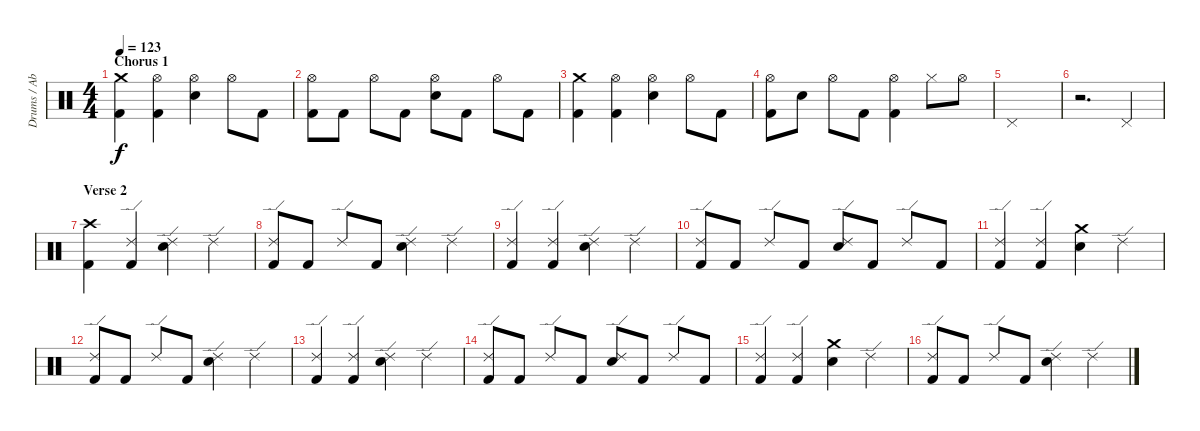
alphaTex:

\track ("Drums / Abe Cunningham" "Drums / Ab") {instrument percussion}
\staff {score}
\articulation defaults
\ts (4 4)
\section ("" "Chorus 1")
\tempo 123
\clef neutral
\ks c
("Crash medium (hit)" "Kick (hit) 2").4{dy f} ("Hi-Hat (open)" "Kick (hit) 2").4 ("Hi-Hat (open)" "Electric Snare (hit)").4 "Hi-Hat (open)".8 "Kick (hit) 2".8 |
("Hi-Hat (open)" "Kick (hit) 2").8 "Kick (hit) 2".8 "Hi-Hat (open)".8 "Kick (hit) 2".8 ("Hi-Hat (open)" "Electric Snare (hit)").8 "Kick (hit) 2".8 "Hi-Hat (open)".8 "Kick (hit) 2".8 |
("Crash medium (hit)" "Kick (hit) 2").4 ("Hi-Hat (open)" "Kick (hit) 2").4 ("Hi-Hat (open)" "Electric Snare (hit)").4 "Hi-Hat (open)".8 "Kick (hit) 2".8 |
("Hi-Hat (open)" "Kick (hit) 2").8 "Electric Snare (hit)".8 "Hi-Hat (open)".8 "Kick (hit) 2".8 ("Hi-Hat (open)" "Kick (hit) 2").4 "Hi-Hat (closed)".8 "Hi-Hat (open)".8 |
"Pedal Hi-Hat (hit)".1 |
r.2{d} "Pedal Hi-Hat (hit)".4 |
\section ("" "Verse 2")
("Crash high (hit)" "Kick (hit) 2").4 ("Ride (edge) 2" "Kick (hit) 2").4 ("Ride (edge) 2" "Electric Snare (hit)").4 "Ride (edge) 2".4 |
("Ride (edge) 2" "Kick (hit) 2").8 "Kick (hit) 2".8 "Ride (edge) 2".8 "Kick (hit) 2".8 ("Ride (edge) 2" "Electric Snare (hit)").4 "Ride (edge) 2".4 |
("Ride (edge) 2" "Kick (hit) 2").4 ("Ride (edge) 2" "Kick (hit) 2").4 ("Ride (edge) 2" "Electric Snare (hit)").4 "Ride (edge) 2".4 |
("Ride (edge) 2" "Kick (hit) 2").8 "Kick (hit) 2".8 "Ride (edge) 2".8 "Kick (hit) 2".8 ("Ride (edge) 2" "Electric Snare (hit)").8 "Kick (hit) 2".8 "Ride (edge) 2".8 "Kick (hit) 2".8 |
("Ride (edge) 2" "Kick (hit) 2").4 ("Ride (edge) 2" "Kick (hit) 2").4 ("Crash medium (hit)" "Electric Snare (hit)").4 "Ride (edge) 2".4 |
("Ride (edge) 2" "Kick (hit) 2").8 "Kick (hit) 2".8 "Ride (edge) 2".8 "Kick (hit) 2".8 ("Ride (edge) 2" "Electric Snare (hit)").4 "Ride (edge) 2".4 |
("Ride (edge) 2" "Kick (hit) 2").4 ("Ride (edge) 2" "Kick (hit) 2").4 ("Ride (edge) 2" "Electric Snare (hit)").4 "Ride (edge) 2".4 |
("Ride (edge) 2" "Kick (hit) 2").8 "Kick (hit) 2".8 "Ride (edge) 2".8 "Kick (hit) 2".8 ("Ride (edge) 2" "Electric Snare (hit)").8 "Kick (hit) 2".8 "Ride (edge) 2".8 "Kick (hit) 2".8 |
("Ride (edge) 2" "Kick (hit) 2").4 ("Ride (edge) 2" "Kick (hit) 2").4 ("Crash medium (hit)" "Electric Snare (hit)").4 "Ride (edge) 2".4 |
("Ride (edge) 2" "Kick (hit) 2").8 "Kick (hit) 2".8 "Ride (edge) 2".8 "Kick (hit) 2".8 ("Ride (edge) 2" "Electric Snare (hit)").4 "Ride (edge) 2".4
